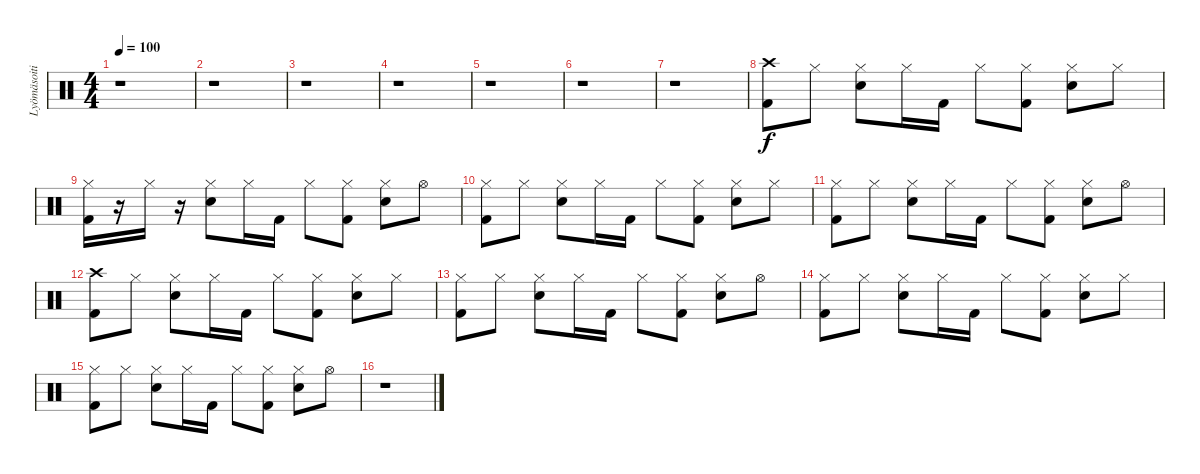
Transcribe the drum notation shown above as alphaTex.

\track ("Lyömäsoitin" "Lyömäsoiti") {instrument percussion}
\staff {score}
\articulation defaults
\ts (4 4)
\tempo 100
\clef neutral
\ks c
r.1{dy f} |
r.1 |
r.1 |
r.1 |
r.1 |
r.1 |
r.1 |
("Crash high (hit)" "Kick (hit) 2").8 "Hi-Hat (closed)".8 ("Hi-Hat (closed)" "Snare (hit) 2").8 "Hi-Hat (closed)".16 "Kick (hit) 2".16 "Hi-Hat (closed)".8 ("Hi-Hat (closed)" "Kick (hit) 2").8 ("Hi-Hat (closed)" "Snare (hit) 2").8 "Hi-Hat (closed)".8 |
("Hi-Hat (closed)" "Kick (hit) 2").16 r.16 "Hi-Hat (closed)".16 r.16 ("Hi-Hat (closed)" "Snare (hit) 2").8 "Hi-Hat (closed)".16 "Kick (hit) 2".16 "Hi-Hat (closed)".8 ("Hi-Hat (closed)" "Kick (hit) 2").8 ("Hi-Hat (closed)" "Snare (hit) 2").8 "Hi-Hat (open)".8 |
("Hi-Hat (closed)" "Kick (hit) 2").8 "Hi-Hat (closed)".8 ("Hi-Hat (closed)" "Snare (hit) 2").8 "Hi-Hat (closed)".16 "Kick (hit) 2".16 "Hi-Hat (closed)".8 ("Hi-Hat (closed)" "Kick (hit) 2").8 ("Hi-Hat (closed)" "Snare (hit) 2").8 "Hi-Hat (closed)".8 |
("Hi-Hat (closed)" "Kick (hit) 2").8 "Hi-Hat (closed)".8 ("Hi-Hat (closed)" "Snare (hit) 2").8 "Hi-Hat (closed)".16 "Kick (hit) 2".16 "Hi-Hat (closed)".8 ("Hi-Hat (closed)" "Kick (hit) 2").8 ("Hi-Hat (closed)" "Snare (hit) 2").8 "Hi-Hat (open)".8 |
("Crash high (hit)" "Kick (hit) 2").8 "Hi-Hat (closed)".8 ("Hi-Hat (closed)" "Snare (hit) 2").8 "Hi-Hat (closed)".16 "Kick (hit) 2".16 "Hi-Hat (closed)".8 ("Hi-Hat (closed)" "Kick (hit) 2").8 ("Hi-Hat (closed)" "Snare (hit) 2").8 "Hi-Hat (closed)".8 |
("Hi-Hat (closed)" "Kick (hit) 2").8 "Hi-Hat (closed)".8 ("Hi-Hat (closed)" "Snare (hit) 2").8 "Hi-Hat (closed)".16 "Kick (hit) 2".16 "Hi-Hat (closed)".8 ("Hi-Hat (closed)" "Kick (hit) 2").8 ("Hi-Hat (closed)" "Snare (hit) 2").8 "Hi-Hat (open)".8 |
("Hi-Hat (closed)" "Kick (hit) 2").8 "Hi-Hat (closed)".8 ("Hi-Hat (closed)" "Snare (hit) 2").8 "Hi-Hat (closed)".16 "Kick (hit) 2".16 "Hi-Hat (closed)".8 ("Hi-Hat (closed)" "Kick (hit) 2").8 ("Hi-Hat (closed)" "Snare (hit) 2").8 "Hi-Hat (closed)".8 |
("Hi-Hat (closed)" "Kick (hit) 2").8 "Hi-Hat (closed)".8 ("Hi-Hat (closed)" "Snare (hit) 2").8 "Hi-Hat (closed)".16 "Kick (hit) 2".16 "Hi-Hat (closed)".8 ("Hi-Hat (closed)" "Kick (hit) 2").8 ("Hi-Hat (closed)" "Snare (hit) 2").8 "Hi-Hat (open)".8 |
r.1
